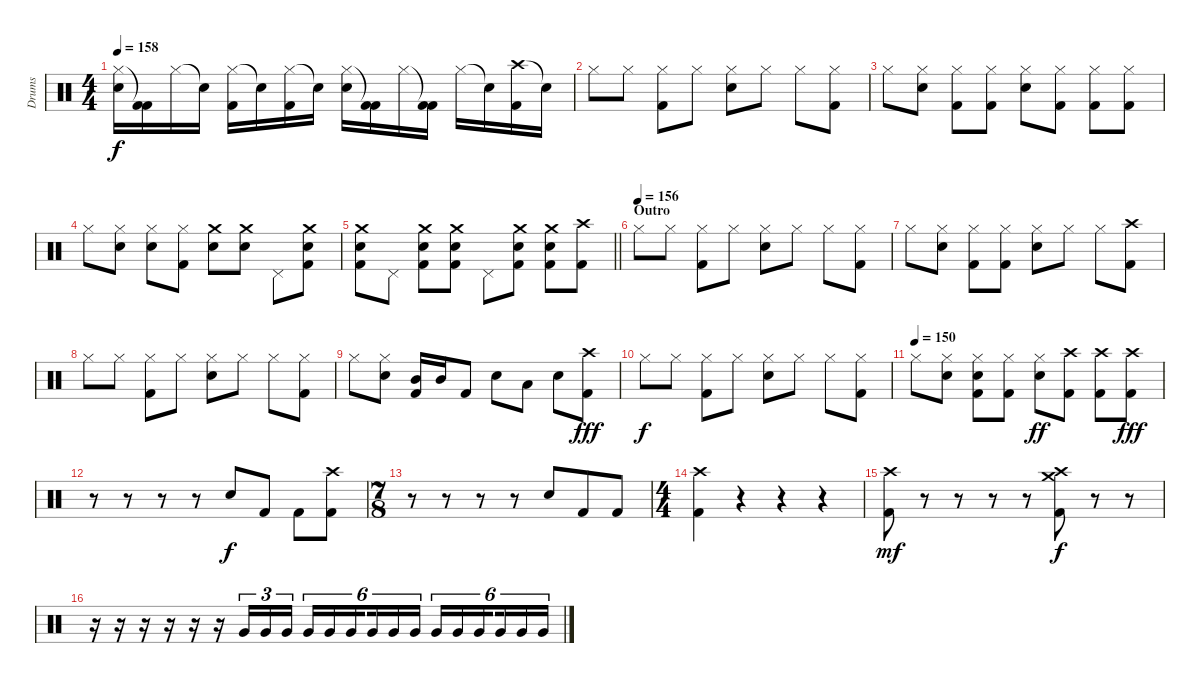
\track ("Drums" "Drums") {instrument percussion}
\staff {score}
\articulation defaults
\ts (4 4)
\tempo 158
\clef neutral
\ks c
("Hi-Hat (closed)" "Snare (hit) 2").16{dy f} ("Kick (hit) 2"{t} "Kick (hit) 2").16 "Hi-Hat (closed)".16 "Snare (hit)"{t}.16 ("Hi-Hat (closed)" "Kick (hit) 2").16 "Snare (hit)"{t}.16 ("Hi-Hat (closed)" "Kick (hit) 2").16 "Snare (hit)"{t}.16 ("Hi-Hat (closed)" "Snare (hit) 2").16 ("Kick (hit) 2"{t} "Kick (hit) 2").16 "Hi-Hat (closed)".16 ("Kick (hit) 2"{t} "Kick (hit) 2").16 "Hi-Hat (closed)".16 "Snare (hit)"{t}.16 ("Crash high (hit)" "Kick (hit) 2").16 "Snare (hit)"{t}.16 |
"Hi-Hat (closed)".8 "Hi-Hat (closed)".8 ("Hi-Hat (closed)" "Kick (hit) 2").8 "Hi-Hat (closed)".8 ("Hi-Hat (closed)" "Snare (hit) 2").8 "Hi-Hat (closed)".8 "Hi-Hat (closed)".8 ("Hi-Hat (closed)" "Kick (hit) 2").8 |
"Hi-Hat (closed)".8 ("Hi-Hat (closed)" "Snare (hit) 2").8 ("Hi-Hat (closed)" "Kick (hit) 2").8 ("Hi-Hat (closed)" "Kick (hit) 2").8 ("Hi-Hat (closed)" "Snare (hit) 2").8 ("Hi-Hat (closed)" "Kick (hit) 2").8 ("Hi-Hat (closed)" "Kick (hit) 2").8 ("Hi-Hat (closed)" "Kick (hit) 2").8 |
"Hi-Hat (closed)".8 ("Hi-Hat (closed)" "Snare (hit) 2").8 ("Hi-Hat (closed)" "Snare (hit) 2").8 ("Hi-Hat (closed)" "Kick (hit) 2").8 ("Crash medium (hit)" "Snare (hit) 2").8 ("Crash medium (hit)" "Snare (hit) 2").8 "Pedal Hi-Hat (hit)".8 ("Crash medium (hit)" "Snare (hit) 2" "Kick (hit) 2").8 |
\barLineRight lightlight
("Crash medium (hit)" "Snare (hit) 2" "Kick (hit) 2").8 "Pedal Hi-Hat (hit)".8 ("Crash medium (hit)" "Snare (hit) 2" "Kick (hit) 2").8 ("Crash medium (hit)" "Snare (hit) 2" "Kick (hit) 2").8 "Pedal Hi-Hat (hit)".8 ("Crash medium (hit)" "Snare (hit) 2" "Kick (hit) 2").8 ("Crash medium (hit)" "Snare (hit) 2" "Kick (hit) 2").8 ("Crash high (hit)" "Kick (hit) 2").8 |
\section ("" "Outro")
\tempo (156)
"Hi-Hat (closed)".8 "Hi-Hat (closed)".8 ("Hi-Hat (closed)" "Kick (hit) 2").8 "Hi-Hat (closed)".8 ("Hi-Hat (closed)" "Snare (hit) 2").8 "Hi-Hat (closed)".8 "Hi-Hat (closed)".8 ("Hi-Hat (closed)" "Kick (hit) 2").8 |
"Hi-Hat (closed)".8 ("Hi-Hat (closed)" "Snare (hit) 2").8 ("Hi-Hat (closed)" "Kick (hit) 2").8 ("Hi-Hat (closed)" "Kick (hit) 2").8 ("Hi-Hat (closed)" "Snare (hit) 2").8 "Hi-Hat (closed)".8 "Hi-Hat (closed)".8 ("Crash high (hit)" "Kick (hit) 2").8 |
"Hi-Hat (closed)".8 "Hi-Hat (closed)".8 ("Hi-Hat (closed)" "Kick (hit) 2").8 "Hi-Hat (closed)".8 ("Hi-Hat (closed)" "Snare (hit) 2").8 "Hi-Hat (closed)".8 "Hi-Hat (closed)".8 ("Hi-Hat (closed)" "Kick (hit) 2").8 |
"Hi-Hat (closed)".8 ("Hi-Hat (closed)" "Snare (hit) 2").8 ("Mid Tom (hit)" "Kick (hit) 2").16 "Mid Tom (hit)".16 "Kick (hit) 2".8 "Snare (hit) 2".8 "Low Tom (hit)".8 "Snare (hit) 2".8 ("Crash high (hit)" "Kick (hit) 2").8{dy fff} |
"Hi-Hat (closed)".8{dy f} "Hi-Hat (closed)".8 ("Hi-Hat (closed)" "Kick (hit) 2").8 "Hi-Hat (closed)".8 ("Hi-Hat (closed)" "Snare (hit) 2").8 "Hi-Hat (closed)".8 "Hi-Hat (closed)".8 ("Hi-Hat (closed)" "Kick (hit) 2").8 |
\tempo (150)
"Hi-Hat (closed)".8 ("Hi-Hat (closed)" "Snare (hit) 2").8 ("Hi-Hat (closed)" "Snare (hit) 2" "Kick (hit) 2").8 ("Hi-Hat (closed)" "Kick (hit) 2").8 ("Hi-Hat (closed)" "Snare (hit) 2").8{dy ff} ("Crash high (hit)" "Kick (hit) 2").8 ("Crash high (hit)" "Kick (hit) 2").8 ("Crash high (hit)" "Kick (hit) 2").8{dy fff} |
r.8 r.8 r.8 r.8 "Snare (hit) 2".8{dy f} "Kick (hit) 2".8 "Kick (hit) 2".8 ("Crash high (hit)" "Kick (hit) 2").8 |
\ts (7 8)
r.8 r.8 r.8 r.8 "Snare (hit) 2".8 "Kick (hit) 2".8 "Kick (hit) 2".8 |
\ts (4 4)
("Crash high (hit)" "Kick (hit) 2").4 r.4 r.4 r.4 |
("Crash high (hit)" "Kick (hit) 2").8{dy mf} r.8 r.8 r.8 r.8 ("Crash medium (hit)" "Crash high (hit)" "Kick (hit) 2").8{dy f} r.8 r.8 |
r.16 r.16 r.16 r.16 r.16 r.16 "Very Low Tom (hit)".16{tu (3 2)} "Very Low Tom (hit)".16{tu (3 2)} "Very Low Tom (hit)".16{tu (3 2)} "Very Low Tom (hit)".16{tu (6 4)} "Very Low Tom (hit)".16{tu (6 4)} "Very Low Tom (hit)".16{tu (6 4) beam splitsecondary} "Very Low Tom (hit)".16{tu (6 4)} "Very Low Tom (hit)".16{tu (6 4)} "Very Low Tom (hit)".16{tu (6 4)} "Very Low Tom (hit)".16{tu (6 4)} "Very Low Tom (hit)".16{tu (6 4)} "Very Low Tom (hit)".16{tu (6 4) beam splitsecondary} "Very Low Tom (hit)".16{tu (6 4)} "Very Low Tom (hit)".16{tu (6 4)} "Very Low Tom (hit)".16{tu (6 4)}
